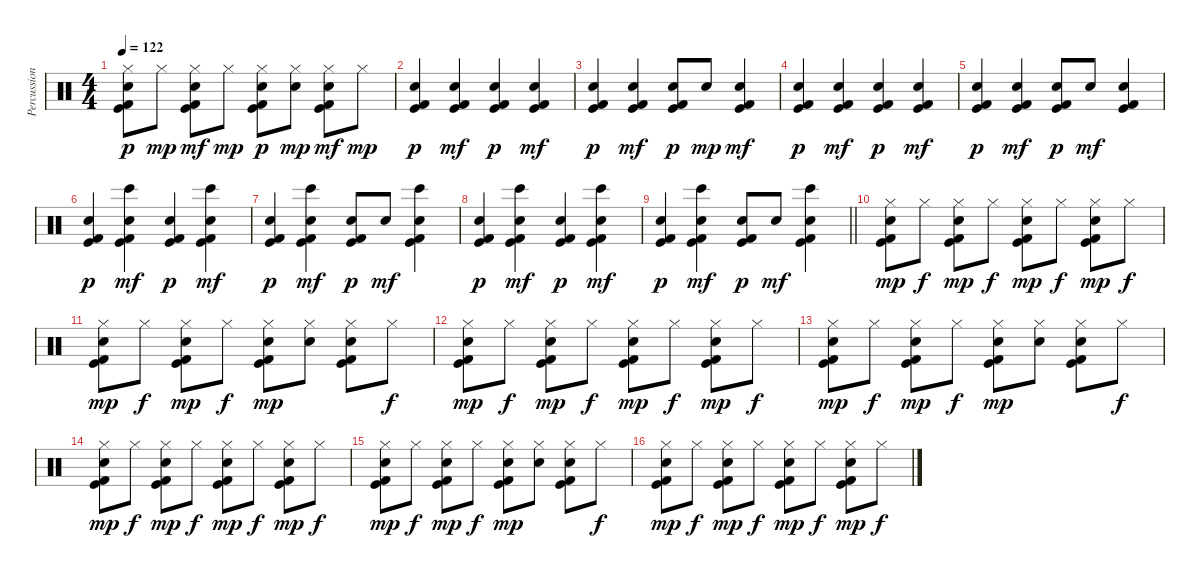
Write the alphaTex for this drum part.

\track ("Percussion" "Percussion") {instrument percussion}
\staff {score}
\articulation defaults
\ts (4 4)
\tempo 122
\clef neutral
\ks c
("Hi-Hat (closed)" "Hand Clap (hit)" "Kick (hit)" "Kick (hit) 2").8{dy p} "Hi-Hat (closed)".8{dy mp} ("Hi-Hat (closed)" "Hand Clap (hit)" "Kick (hit)" "Kick (hit) 2").8{dy mf} "Hi-Hat (closed)".8{dy mp} ("Hi-Hat (closed)" "Hand Clap (hit)" "Kick (hit)" "Kick (hit) 2").8{dy p} ("Hi-Hat (closed)" "Hand Clap (hit)").8{dy mp} ("Hi-Hat (closed)" "Hand Clap (hit)" "Kick (hit)" "Kick (hit) 2").8{dy mf} "Hi-Hat (closed)".8{dy mp} |
("Hand Clap (hit)" "Kick (hit)" "Kick (hit) 2").4{dy p} ("Hand Clap (hit)" "Kick (hit)" "Kick (hit) 2").4{dy mf} ("Hand Clap (hit)" "Kick (hit)" "Kick (hit) 2").4{dy p} ("Hand Clap (hit)" "Kick (hit)" "Kick (hit) 2").4{dy mf} |
("Hand Clap (hit)" "Kick (hit)" "Kick (hit) 2").4{dy p} ("Hand Clap (hit)" "Kick (hit)" "Kick (hit) 2").4{dy mf} ("Hand Clap (hit)" "Kick (hit)" "Kick (hit) 2").8{dy p} "Hand Clap (hit)".8{dy mp} ("Hand Clap (hit)" "Kick (hit)" "Kick (hit) 2").4{dy mf} |
("Hand Clap (hit)" "Kick (hit)" "Kick (hit) 2").4{dy p} ("Hand Clap (hit)" "Kick (hit)" "Kick (hit) 2").4{dy mf} ("Hand Clap (hit)" "Kick (hit)" "Kick (hit) 2").4{dy p} ("Hand Clap (hit)" "Kick (hit)" "Kick (hit) 2").4{dy mf} |
("Hand Clap (hit)" "Kick (hit)" "Kick (hit) 2").4{dy p} ("Hand Clap (hit)" "Kick (hit)" "Kick (hit) 2").4{dy mf} ("Hand Clap (hit)" "Kick (hit)" "Kick (hit) 2").8{dy p} "Hand Clap (hit)".8{dy mf} ("Hand Clap (hit)" "Kick (hit)" "Kick (hit) 2").4 |
("Hand Clap (hit)" "Kick (hit)" "Kick (hit) 2").4{dy p} ("Bongo High (hit)" "Hand Clap (hit)" "Kick (hit)" "Kick (hit) 2").4{dy mf} ("Hand Clap (hit)" "Kick (hit)" "Kick (hit) 2").4{dy p} ("Bongo High (hit)" "Hand Clap (hit)" "Kick (hit)" "Kick (hit) 2").4{dy mf} |
("Hand Clap (hit)" "Kick (hit)" "Kick (hit) 2").4{dy p} ("Bongo High (hit)" "Hand Clap (hit)" "Kick (hit)" "Kick (hit) 2").4{dy mf} ("Hand Clap (hit)" "Kick (hit)" "Kick (hit) 2").8{dy p} "Hand Clap (hit)".8{dy mf} ("Bongo High (hit)" "Hand Clap (hit)" "Kick (hit)" "Kick (hit) 2").4 |
("Hand Clap (hit)" "Kick (hit)" "Kick (hit) 2").4{dy p} ("Bongo High (hit)" "Hand Clap (hit)" "Kick (hit)" "Kick (hit) 2").4{dy mf} ("Hand Clap (hit)" "Kick (hit)" "Kick (hit) 2").4{dy p} ("Bongo High (hit)" "Hand Clap (hit)" "Kick (hit)" "Kick (hit) 2").4{dy mf} |
\barLineRight lightlight
("Hand Clap (hit)" "Kick (hit)" "Kick (hit) 2").4{dy p} ("Bongo High (hit)" "Hand Clap (hit)" "Kick (hit)" "Kick (hit) 2").4{dy mf} ("Hand Clap (hit)" "Kick (hit)" "Kick (hit) 2").8{dy p} "Hand Clap (hit)".8{dy mf} ("Bongo High (hit)" "Hand Clap (hit)" "Kick (hit)" "Kick (hit) 2").4 |
\section ("" "")
("Hi-Hat (closed)" "Hand Clap (hit)" "Kick (hit)" "Kick (hit) 2").8{dy mp volume 13} "Hi-Hat (closed)".8{dy f} ("Hi-Hat (closed)" "Hand Clap (hit)" "Kick (hit)" "Kick (hit) 2").8{dy mp} "Hi-Hat (closed)".8{dy f} ("Hi-Hat (closed)" "Hand Clap (hit)" "Kick (hit)" "Kick (hit) 2").8{dy mp} "Hi-Hat (closed)".8{dy f} ("Hi-Hat (closed)" "Hand Clap (hit)" "Kick (hit)" "Kick (hit) 2").8{dy mp} "Hi-Hat (closed)".8{dy f} |
("Hi-Hat (closed)" "Hand Clap (hit)" "Kick (hit)" "Kick (hit) 2").8{dy mp} "Hi-Hat (closed)".8{dy f} ("Hi-Hat (closed)" "Hand Clap (hit)" "Kick (hit)" "Kick (hit) 2").8{dy mp} "Hi-Hat (closed)".8{dy f} ("Hi-Hat (closed)" "Hand Clap (hit)" "Kick (hit)" "Kick (hit) 2").8{dy mp} ("Hi-Hat (closed)" "Hand Clap (hit)").8 ("Hi-Hat (closed)" "Hand Clap (hit)" "Kick (hit)" "Kick (hit) 2").8 "Hi-Hat (closed)".8{dy f} |
("Hi-Hat (closed)" "Hand Clap (hit)" "Kick (hit)" "Kick (hit) 2").8{dy mp} "Hi-Hat (closed)".8{dy f} ("Hi-Hat (closed)" "Hand Clap (hit)" "Kick (hit)" "Kick (hit) 2").8{dy mp} "Hi-Hat (closed)".8{dy f} ("Hi-Hat (closed)" "Hand Clap (hit)" "Kick (hit)" "Kick (hit) 2").8{dy mp} "Hi-Hat (closed)".8{dy f} ("Hi-Hat (closed)" "Hand Clap (hit)" "Kick (hit)" "Kick (hit) 2").8{dy mp} "Hi-Hat (closed)".8{dy f} |
("Hi-Hat (closed)" "Hand Clap (hit)" "Kick (hit)" "Kick (hit) 2").8{dy mp} "Hi-Hat (closed)".8{dy f} ("Hi-Hat (closed)" "Hand Clap (hit)" "Kick (hit)" "Kick (hit) 2").8{dy mp} "Hi-Hat (closed)".8{dy f} ("Hi-Hat (closed)" "Hand Clap (hit)" "Kick (hit)" "Kick (hit) 2").8{dy mp} ("Hi-Hat (closed)" "Hand Clap (hit)").8 ("Hi-Hat (closed)" "Hand Clap (hit)" "Kick (hit)" "Kick (hit) 2").8 "Hi-Hat (closed)".8{dy f} |
("Hi-Hat (closed)" "Hand Clap (hit)" "Kick (hit)" "Kick (hit) 2").8{dy mp} "Hi-Hat (closed)".8{dy f} ("Hi-Hat (closed)" "Hand Clap (hit)" "Kick (hit)" "Kick (hit) 2").8{dy mp} "Hi-Hat (closed)".8{dy f} ("Hi-Hat (closed)" "Hand Clap (hit)" "Kick (hit)" "Kick (hit) 2").8{dy mp} "Hi-Hat (closed)".8{dy f} ("Hi-Hat (closed)" "Hand Clap (hit)" "Kick (hit)" "Kick (hit) 2").8{dy mp} "Hi-Hat (closed)".8{dy f} |
("Hi-Hat (closed)" "Hand Clap (hit)" "Kick (hit)" "Kick (hit) 2").8{dy mp} "Hi-Hat (closed)".8{dy f} ("Hi-Hat (closed)" "Hand Clap (hit)" "Kick (hit)" "Kick (hit) 2").8{dy mp} "Hi-Hat (closed)".8{dy f} ("Hi-Hat (closed)" "Hand Clap (hit)" "Kick (hit)" "Kick (hit) 2").8{dy mp} ("Hi-Hat (closed)" "Hand Clap (hit)").8 ("Hi-Hat (closed)" "Hand Clap (hit)" "Kick (hit)" "Kick (hit) 2").8 "Hi-Hat (closed)".8{dy f} |
("Hi-Hat (closed)" "Hand Clap (hit)" "Kick (hit)" "Kick (hit) 2").8{dy mp} "Hi-Hat (closed)".8{dy f} ("Hi-Hat (closed)" "Hand Clap (hit)" "Kick (hit)" "Kick (hit) 2").8{dy mp} "Hi-Hat (closed)".8{dy f} ("Hi-Hat (closed)" "Hand Clap (hit)" "Kick (hit)" "Kick (hit) 2").8{dy mp} "Hi-Hat (closed)".8{dy f} ("Hi-Hat (closed)" "Hand Clap (hit)" "Kick (hit)" "Kick (hit) 2").8{dy mp} "Hi-Hat (closed)".8{dy f}
